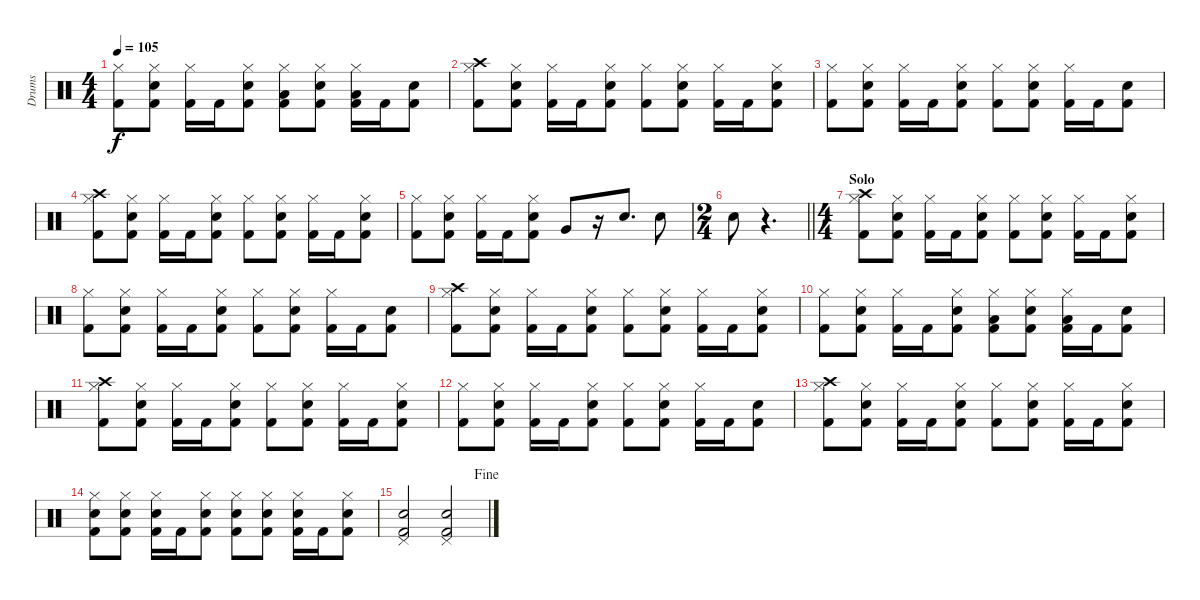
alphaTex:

\track ("Drums" "Drums") {instrument percussion}
\staff {score}
\articulation defaults
\ts (4 4)
\tempo 105
\clef neutral
\ks c
("Hi-Hat (closed)" "Kick (hit) 2").8{dy f} ("Hi-Hat (closed)" "Electric Snare (hit)" "Kick (hit) 2").8 ("Hi-Hat (closed)" "Kick (hit) 2").16 "Kick (hit) 2".16 ("Hi-Hat (closed)" "Electric Snare (hit)" "Kick (hit) 2").8 ("Hi-Hat (closed)" "Low Tom (hit)" "Kick (hit) 2").8 ("Hi-Hat (closed)" "Electric Snare (hit)" "Kick (hit) 2").8 ("Hi-Hat (closed)" "Low Tom (hit)" "Kick (hit) 2").16 "Kick (hit) 2".16 ("Electric Snare (hit)" "Kick (hit) 2").8 |
("Hi-Hat (closed)" "Crash high (hit)" "Kick (hit) 2").8 ("Hi-Hat (closed)" "Electric Snare (hit)" "Kick (hit) 2").8 ("Hi-Hat (closed)" "Kick (hit) 2").16 "Kick (hit) 2".16 ("Hi-Hat (closed)" "Electric Snare (hit)" "Kick (hit) 2").8 ("Hi-Hat (closed)" "Kick (hit) 2").8 ("Hi-Hat (closed)" "Electric Snare (hit)" "Kick (hit) 2").8 ("Hi-Hat (closed)" "Kick (hit) 2").16 "Kick (hit) 2".16 ("Hi-Hat (closed)" "Electric Snare (hit)" "Kick (hit) 2").8 |
("Hi-Hat (closed)" "Kick (hit) 2").8 ("Hi-Hat (closed)" "Electric Snare (hit)" "Kick (hit) 2").8 ("Hi-Hat (closed)" "Kick (hit) 2").16 "Kick (hit) 2".16 ("Hi-Hat (closed)" "Electric Snare (hit)" "Kick (hit) 2").8 ("Hi-Hat (closed)" "Kick (hit) 2").8 ("Hi-Hat (closed)" "Electric Snare (hit)" "Kick (hit) 2").8 ("Hi-Hat (closed)" "Kick (hit) 2").16 "Kick (hit) 2".16 ("Electric Snare (hit)" "Kick (hit) 2").8 |
("Hi-Hat (closed)" "Crash high (hit)" "Kick (hit) 2").8 ("Hi-Hat (closed)" "Electric Snare (hit)" "Kick (hit) 2").8 ("Hi-Hat (closed)" "Kick (hit) 2").16 "Kick (hit) 2".16 ("Hi-Hat (closed)" "Electric Snare (hit)" "Kick (hit) 2").8 ("Hi-Hat (closed)" "Kick (hit) 2").8 ("Hi-Hat (closed)" "Electric Snare (hit)" "Kick (hit) 2").8 ("Hi-Hat (closed)" "Kick (hit) 2").16 "Kick (hit) 2".16 ("Hi-Hat (closed)" "Electric Snare (hit)" "Kick (hit) 2").8 |
("Hi-Hat (closed)" "Kick (hit) 2").8 ("Hi-Hat (closed)" "Electric Snare (hit)" "Kick (hit) 2").8 ("Hi-Hat (closed)" "Kick (hit) 2").16 "Kick (hit) 2".16 ("Hi-Hat (closed)" "Electric Snare (hit)" "Kick (hit) 2").8 "Very Low Tom (hit)".8 r.16 "Electric Snare (hit)".8{d} "Electric Snare (hit)".8 |
\ts (2 4)
\barLineRight lightlight "Electric Snare (hit)".8
r.4{d} |
\ts (4 4)
\section ("" "Solo")
("Hi-Hat (closed)" "Crash high (hit)" "Kick (hit) 2").8 ("Hi-Hat (closed)" "Electric Snare (hit)" "Kick (hit) 2").8 ("Hi-Hat (closed)" "Kick (hit) 2").16 "Kick (hit) 2".16 ("Hi-Hat (closed)" "Electric Snare (hit)" "Kick (hit) 2").8 ("Hi-Hat (closed)" "Kick (hit) 2").8 ("Hi-Hat (closed)" "Electric Snare (hit)" "Kick (hit) 2").8 ("Hi-Hat (closed)" "Kick (hit) 2").16 "Kick (hit) 2".16 ("Hi-Hat (closed)" "Electric Snare (hit)" "Kick (hit) 2").8 |
("Hi-Hat (closed)" "Kick (hit) 2").8 ("Hi-Hat (closed)" "Electric Snare (hit)" "Kick (hit) 2").8 ("Hi-Hat (closed)" "Kick (hit) 2").16 "Kick (hit) 2".16 ("Hi-Hat (closed)" "Electric Snare (hit)" "Kick (hit) 2").8 ("Hi-Hat (closed)" "Kick (hit) 2").8 ("Hi-Hat (closed)" "Electric Snare (hit)" "Kick (hit) 2").8 ("Hi-Hat (closed)" "Kick (hit) 2").16 "Kick (hit) 2".16 ("Electric Snare (hit)" "Kick (hit) 2").8 |
("Hi-Hat (closed)" "Crash high (hit)" "Kick (hit) 2").8 ("Hi-Hat (closed)" "Electric Snare (hit)" "Kick (hit) 2").8 ("Hi-Hat (closed)" "Kick (hit) 2").16 "Kick (hit) 2".16 ("Hi-Hat (closed)" "Electric Snare (hit)" "Kick (hit) 2").8 ("Hi-Hat (closed)" "Kick (hit) 2").8 ("Hi-Hat (closed)" "Electric Snare (hit)" "Kick (hit) 2").8 ("Hi-Hat (closed)" "Kick (hit) 2").16 "Kick (hit) 2".16 ("Hi-Hat (closed)" "Electric Snare (hit)" "Kick (hit) 2").8 |
("Hi-Hat (closed)" "Kick (hit) 2").8 ("Hi-Hat (closed)" "Electric Snare (hit)" "Kick (hit) 2").8 ("Hi-Hat (closed)" "Kick (hit) 2").16 "Kick (hit) 2".16 ("Hi-Hat (closed)" "Electric Snare (hit)" "Kick (hit) 2").8 ("Hi-Hat (closed)" "Low Tom (hit)" "Kick (hit) 2").8 ("Hi-Hat (closed)" "Electric Snare (hit)" "Kick (hit) 2").8 ("Hi-Hat (closed)" "Low Tom (hit)" "Kick (hit) 2").16 "Kick (hit) 2".16 ("Electric Snare (hit)" "Kick (hit) 2").8 |
("Hi-Hat (closed)" "Crash high (hit)" "Kick (hit) 2").8 ("Hi-Hat (closed)" "Electric Snare (hit)" "Kick (hit) 2").8 ("Hi-Hat (closed)" "Kick (hit) 2").16 "Kick (hit) 2".16 ("Hi-Hat (closed)" "Electric Snare (hit)" "Kick (hit) 2").8 ("Hi-Hat (closed)" "Kick (hit) 2").8 ("Hi-Hat (closed)" "Electric Snare (hit)" "Kick (hit) 2").8 ("Hi-Hat (closed)" "Kick (hit) 2").16 "Kick (hit) 2".16 ("Hi-Hat (closed)" "Electric Snare (hit)" "Kick (hit) 2").8 |
("Hi-Hat (closed)" "Kick (hit) 2").8 ("Hi-Hat (closed)" "Electric Snare (hit)" "Kick (hit) 2").8 ("Hi-Hat (closed)" "Kick (hit) 2").16 "Kick (hit) 2".16 ("Hi-Hat (closed)" "Electric Snare (hit)" "Kick (hit) 2").8 ("Hi-Hat (closed)" "Kick (hit) 2").8 ("Hi-Hat (closed)" "Electric Snare (hit)" "Kick (hit) 2").8 ("Hi-Hat (closed)" "Kick (hit) 2").16 "Kick (hit) 2".16 ("Electric Snare (hit)" "Kick (hit) 2").8 |
("Hi-Hat (closed)" "Crash high (hit)" "Kick (hit) 2").8 ("Hi-Hat (closed)" "Electric Snare (hit)" "Kick (hit) 2").8 ("Hi-Hat (closed)" "Kick (hit) 2").16 "Kick (hit) 2".16 ("Hi-Hat (closed)" "Electric Snare (hit)" "Kick (hit) 2").8 ("Hi-Hat (closed)" "Kick (hit) 2").8 ("Hi-Hat (closed)" "Electric Snare (hit)" "Kick (hit) 2").8 ("Hi-Hat (closed)" "Kick (hit) 2").16 "Kick (hit) 2".16 ("Hi-Hat (closed)" "Electric Snare (hit)" "Kick (hit) 2").8 |
("Hi-Hat (closed)" "Electric Snare (hit)" "Kick (hit) 2").8 ("Hi-Hat (closed)" "Electric Snare (hit)" "Kick (hit) 2").8 ("Hi-Hat (closed)" "Electric Snare (hit)" "Kick (hit) 2").16 "Kick (hit) 2".16 ("Hi-Hat (closed)" "Electric Snare (hit)" "Kick (hit) 2").8 ("Hi-Hat (closed)" "Electric Snare (hit)" "Kick (hit) 2").8 ("Hi-Hat (closed)" "Electric Snare (hit)" "Kick (hit) 2").8 ("Hi-Hat (closed)" "Electric Snare (hit)" "Kick (hit) 2").16 "Kick (hit) 2".16 ("Hi-Hat (closed)" "Electric Snare (hit)" "Kick (hit) 2").8 |
\jump fine
("Pedal Hi-Hat (hit)" "Snare (hit) 2" "Kick (hit) 2").2 ("Pedal Hi-Hat (hit)" "Snare (hit) 2" "Kick (hit) 2").2
